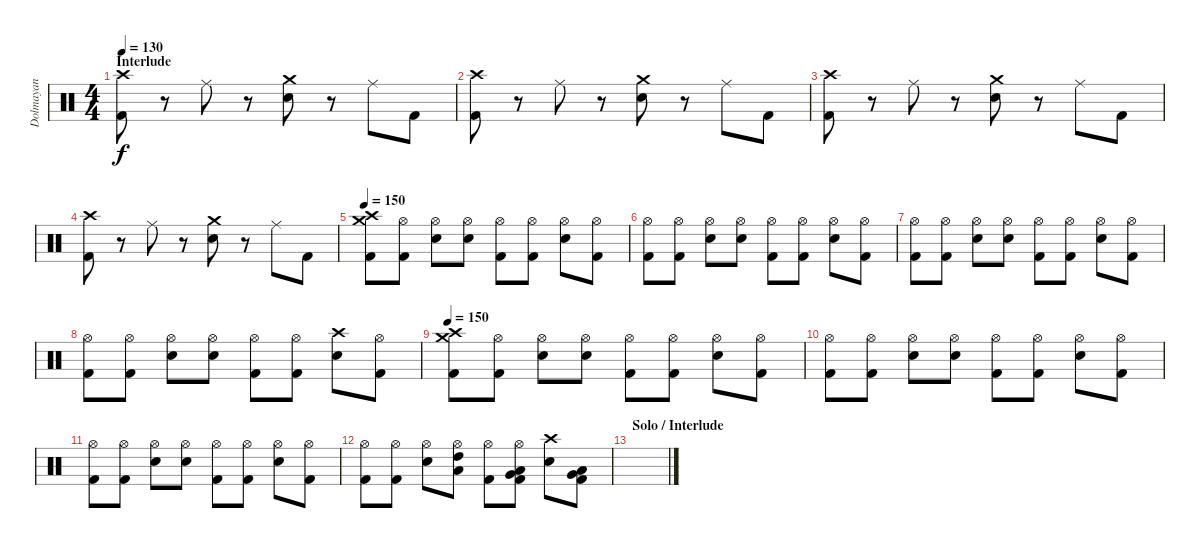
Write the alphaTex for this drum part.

\track ("Dolmayan" "Dolmayan") {instrument percussion}
\staff {score}
\articulation defaults
\ts (4 4)
\section ("" "Interlude")
\tempo 130
\clef neutral
\ks c
("Crash high (hit)" "Kick (hit) 2").8{dy f} r.8 "Ride (middle)".8 r.8 ("Crash medium (hit)" "Electric Snare (hit)").8 r.8 "Ride (middle)".8 "Kick (hit) 2".8 |
("Crash high (hit)" "Kick (hit) 2").8 r.8 "Ride (middle)".8 r.8 ("Crash medium (hit)" "Electric Snare (hit)").8 r.8 "Ride (middle)".8 "Kick (hit) 2".8 |
("Crash high (hit)" "Kick (hit) 2").8 r.8 "Ride (middle)".8 r.8 ("Crash medium (hit)" "Electric Snare (hit)").8 r.8 "Ride (middle)".8 "Kick (hit) 2".8 |
("Crash high (hit)" "Kick (hit) 2").8 r.8 "Ride (middle)".8 r.8 ("Crash medium (hit)" "Electric Snare (hit)").8 r.8 "Ride (middle)".8 "Kick (hit) 2".8 |
\tempo 150
("Crash high (hit)" "Crash medium (hit)" "Kick (hit) 2").8 ("Hi-Hat (open)" "Kick (hit) 2").8 ("Hi-Hat (open)" "Electric Snare (hit)").8 ("Hi-Hat (open)" "Electric Snare (hit)").8 ("Hi-Hat (open)" "Kick (hit) 2").8 ("Hi-Hat (open)" "Kick (hit) 2").8 ("Hi-Hat (open)" "Electric Snare (hit)").8 ("Hi-Hat (open)" "Kick (hit) 2").8 |
("Hi-Hat (open)" "Kick (hit) 2").8 ("Hi-Hat (open)" "Kick (hit) 2").8 ("Hi-Hat (open)" "Electric Snare (hit)").8 ("Hi-Hat (open)" "Electric Snare (hit)").8 ("Hi-Hat (open)" "Kick (hit) 2").8 ("Hi-Hat (open)" "Kick (hit) 2").8 ("Hi-Hat (open)" "Electric Snare (hit)").8 ("Hi-Hat (open)" "Kick (hit) 2").8 |
("Hi-Hat (open)" "Kick (hit) 2").8 ("Hi-Hat (open)" "Kick (hit) 2").8 ("Hi-Hat (open)" "Electric Snare (hit)").8 ("Hi-Hat (open)" "Electric Snare (hit)").8 ("Hi-Hat (open)" "Kick (hit) 2").8 ("Hi-Hat (open)" "Kick (hit) 2").8 ("Hi-Hat (open)" "Electric Snare (hit)").8 ("Hi-Hat (open)" "Kick (hit) 2").8 |
("Hi-Hat (open)" "Kick (hit) 2").8 ("Hi-Hat (open)" "Kick (hit) 2").8 ("Hi-Hat (open)" "Electric Snare (hit)").8 ("Hi-Hat (open)" "Electric Snare (hit)").8 ("Hi-Hat (open)" "Kick (hit) 2").8 ("Hi-Hat (open)" "Kick (hit) 2").8 ("Crash high (hit)" "Electric Snare (hit)").8 ("Hi-Hat (open)" "Kick (hit) 2").8 |
\tempo 150
("Crash high (hit)" "Crash medium (hit)" "Kick (hit) 2").8 ("Hi-Hat (open)" "Kick (hit) 2").8 ("Hi-Hat (open)" "Electric Snare (hit)").8 ("Hi-Hat (open)" "Electric Snare (hit)").8 ("Hi-Hat (open)" "Kick (hit) 2").8 ("Hi-Hat (open)" "Kick (hit) 2").8 ("Hi-Hat (open)" "Electric Snare (hit)").8 ("Hi-Hat (open)" "Kick (hit) 2").8 |
("Hi-Hat (open)" "Kick (hit) 2").8 ("Hi-Hat (open)" "Kick (hit) 2").8 ("Hi-Hat (open)" "Electric Snare (hit)").8 ("Hi-Hat (open)" "Electric Snare (hit)").8 ("Hi-Hat (open)" "Kick (hit) 2").8 ("Hi-Hat (open)" "Kick (hit) 2").8 ("Hi-Hat (open)" "Electric Snare (hit)").8 ("Hi-Hat (open)" "Kick (hit) 2").8 |
("Hi-Hat (open)" "Kick (hit) 2").8 ("Hi-Hat (open)" "Kick (hit) 2").8 ("Hi-Hat (open)" "Electric Snare (hit)").8 ("Hi-Hat (open)" "Electric Snare (hit)").8 ("Hi-Hat (open)" "Kick (hit) 2").8 ("Hi-Hat (open)" "Kick (hit) 2").8 ("Hi-Hat (open)" "Electric Snare (hit)").8 ("Hi-Hat (open)" "Kick (hit) 2").8 |
("Hi-Hat (open)" "Kick (hit) 2").8 ("Hi-Hat (open)" "Kick (hit) 2").8 ("Hi-Hat (open)" "Electric Snare (hit)").8 ("Hi-Hat (open)" "High Tom (hit)" "Low Tom (hit)").8 ("Hi-Hat (open)" "Kick (hit) 2").8 ("Hi-Hat (open)" "Very Low Tom (hit)" "Low Floor Tom (hit)" "Kick (hit) 2").8 ("Crash high (hit)" "Electric Snare (hit)").8 ("Low Tom (hit)" "Very Low Tom (hit)" "Kick (hit) 2").8 |
\section ("" "Solo / Interlude")
